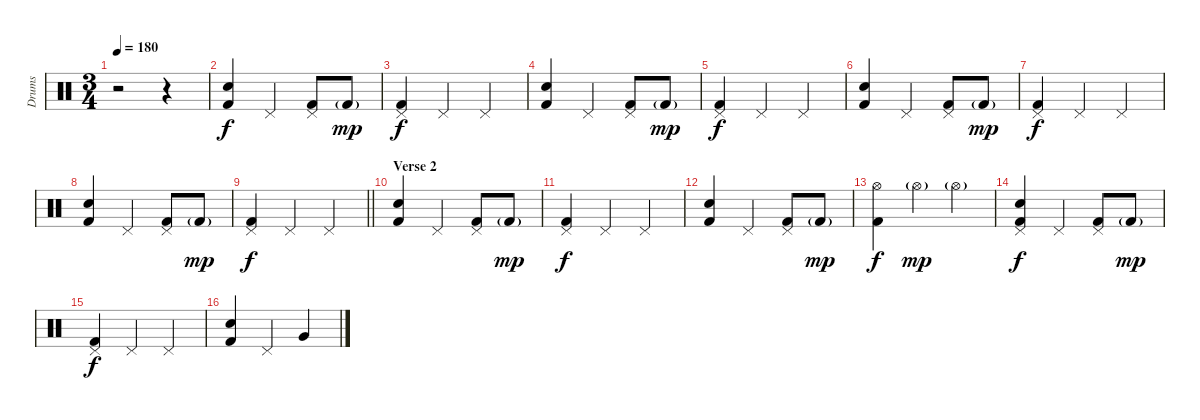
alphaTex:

\track ("Drums" "Drums") {instrument percussion}
\staff {score}
\articulation defaults
\ts (3 4)
\tempo 180
\clef neutral
\ks c
r.2{dy f} r.4 |
("Electric Snare (hit)" "Kick (hit) 2").4 "Pedal Hi-Hat (hit)".4 ("Pedal Hi-Hat (hit)" "Kick (hit) 2").8 "Kick (hit) 2"{g}.8{dy mp} |
("Pedal Hi-Hat (hit)" "Kick (hit) 2").4{dy f} "Pedal Hi-Hat (hit)".4 "Pedal Hi-Hat (hit)".4 |
("Electric Snare (hit)" "Kick (hit) 2").4 "Pedal Hi-Hat (hit)".4 ("Pedal Hi-Hat (hit)" "Kick (hit) 2").8 "Kick (hit) 2"{g}.8{dy mp} |
("Pedal Hi-Hat (hit)" "Kick (hit) 2").4{dy f} "Pedal Hi-Hat (hit)".4 "Pedal Hi-Hat (hit)".4 |
("Electric Snare (hit)" "Kick (hit) 2").4 "Pedal Hi-Hat (hit)".4 ("Pedal Hi-Hat (hit)" "Kick (hit) 2").8 "Kick (hit) 2"{g}.8{dy mp} |
("Pedal Hi-Hat (hit)" "Kick (hit) 2").4{dy f} "Pedal Hi-Hat (hit)".4 "Pedal Hi-Hat (hit)".4 |
("Electric Snare (hit)" "Kick (hit) 2").4 "Pedal Hi-Hat (hit)".4 ("Pedal Hi-Hat (hit)" "Kick (hit) 2").8 "Kick (hit) 2"{g}.8{dy mp} |
\barLineRight lightlight
("Pedal Hi-Hat (hit)" "Kick (hit) 2").4{dy f} "Pedal Hi-Hat (hit)".4 "Pedal Hi-Hat (hit)".4 |
\section ("" "Verse 2")
("Electric Snare (hit)" "Kick (hit) 2").4 "Pedal Hi-Hat (hit)".4 ("Pedal Hi-Hat (hit)" "Kick (hit) 2").8 "Kick (hit) 2"{g}.8{dy mp} |
("Pedal Hi-Hat (hit)" "Kick (hit) 2").4{dy f} "Pedal Hi-Hat (hit)".4 "Pedal Hi-Hat (hit)".4 |
("Electric Snare (hit)" "Kick (hit) 2").4 "Pedal Hi-Hat (hit)".4 ("Pedal Hi-Hat (hit)" "Kick (hit) 2").8 "Kick (hit) 2"{g}.8{dy mp} |
("Hi-Hat (open)" "Kick (hit) 2").4{dy f} "Hi-Hat (open)"{g}.4{dy mp} "Hi-Hat (open)"{g}.4 |
("Electric Snare (hit)" "Pedal Hi-Hat (hit)" "Kick (hit) 2").4{dy f} "Pedal Hi-Hat (hit)".4 ("Pedal Hi-Hat (hit)" "Kick (hit) 2").8 "Kick (hit) 2"{g}.8{dy mp} |
("Pedal Hi-Hat (hit)" "Kick (hit) 2").4{dy f} "Pedal Hi-Hat (hit)".4 "Pedal Hi-Hat (hit)".4 |
("Electric Snare (hit)" "Kick (hit) 2").4 "Pedal Hi-Hat (hit)".4 "Very Low Tom (hit)".4
